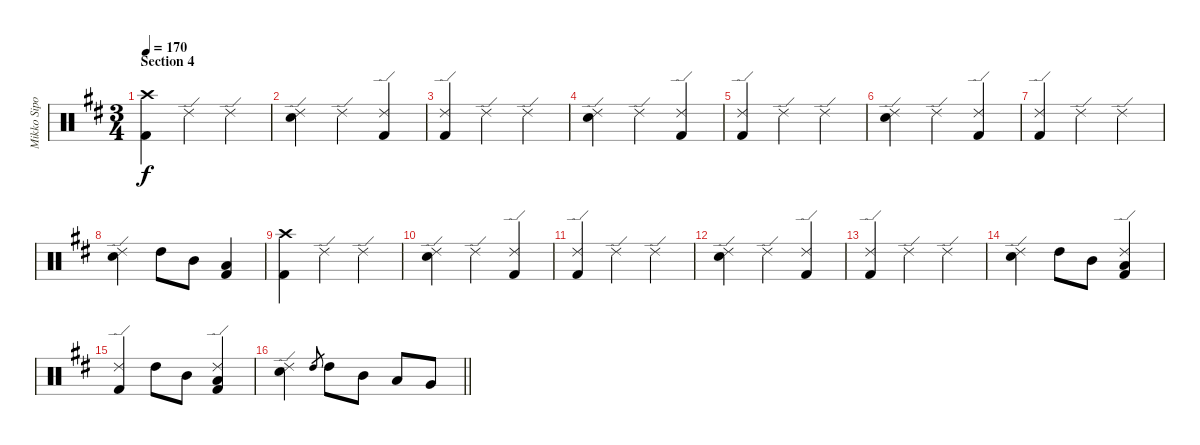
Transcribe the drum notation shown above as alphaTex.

\track ("Mikko Sipola (drums)" "Mikko Sipo") {instrument percussion}
\staff {score}
\articulation defaults
\ts (3 4)
\section ("" "Section 4")
\tempo 170
\clef neutral
\ks bminor
("Crash high (hit)" "Kick (hit) 2").4{dy f} "Ride (edge) 2".4 "Ride (edge) 2".4 |
("Ride (edge) 2" "Electric Snare (hit)").4 "Ride (edge) 2".4 ("Ride (edge) 2" "Kick (hit) 2").4 |
("Ride (edge) 2" "Kick (hit) 2").4 "Ride (edge) 2".4 "Ride (edge) 2".4 |
("Ride (edge) 2" "Electric Snare (hit)").4 "Ride (edge) 2".4 ("Ride (edge) 2" "Kick (hit) 2").4 |
("Ride (edge) 2" "Kick (hit) 2").4 "Ride (edge) 2".4 "Ride (edge) 2".4 |
("Ride (edge) 2" "Electric Snare (hit)").4 "Ride (edge) 2".4 ("Ride (edge) 2" "Kick (hit) 2").4 |
("Ride (edge) 2" "Kick (hit) 2").4 "Ride (edge) 2".4 "Ride (edge) 2".4 |
("Ride (edge) 2" "Electric Snare (hit)").4 "High Tom (hit)".8 "Mid Tom (hit)".8 ("Low Tom (hit)" "Kick (hit) 2").4 |
("Crash high (hit)" "Kick (hit) 2").4 "Ride (edge) 2".4 "Ride (edge) 2".4 |
("Ride (edge) 2" "Electric Snare (hit)").4 "Ride (edge) 2".4 ("Ride (edge) 2" "Kick (hit) 2").4 |
("Ride (edge) 2" "Kick (hit) 2").4 "Ride (edge) 2".4 "Ride (edge) 2".4 |
("Ride (edge) 2" "Electric Snare (hit)").4 "Ride (edge) 2".4 ("Ride (edge) 2" "Kick (hit) 2").4 |
("Ride (edge) 2" "Kick (hit) 2").4 "Ride (edge) 2".4 "Ride (edge) 2".4 |
("Ride (edge) 2" "Electric Snare (hit)").4 "High Tom (hit)".8 "Mid Tom (hit)".8 ("Low Tom (hit)" "Ride (edge) 2" "Kick (hit) 2").4 |
("Ride (edge) 2" "Kick (hit) 2").4 "High Tom (hit)".8 "Mid Tom (hit)".8 ("Low Tom (hit)" "Ride (edge) 2" "Kick (hit) 2").4 |
\barLineRight lightlight
("Ride (edge) 2" "Electric Snare (hit)").4 "High Tom (hit)".8{gr} "High Tom (hit)".8 "Mid Tom (hit)".8 "Low Tom (hit)".8 "Very Low Tom (hit)".8
